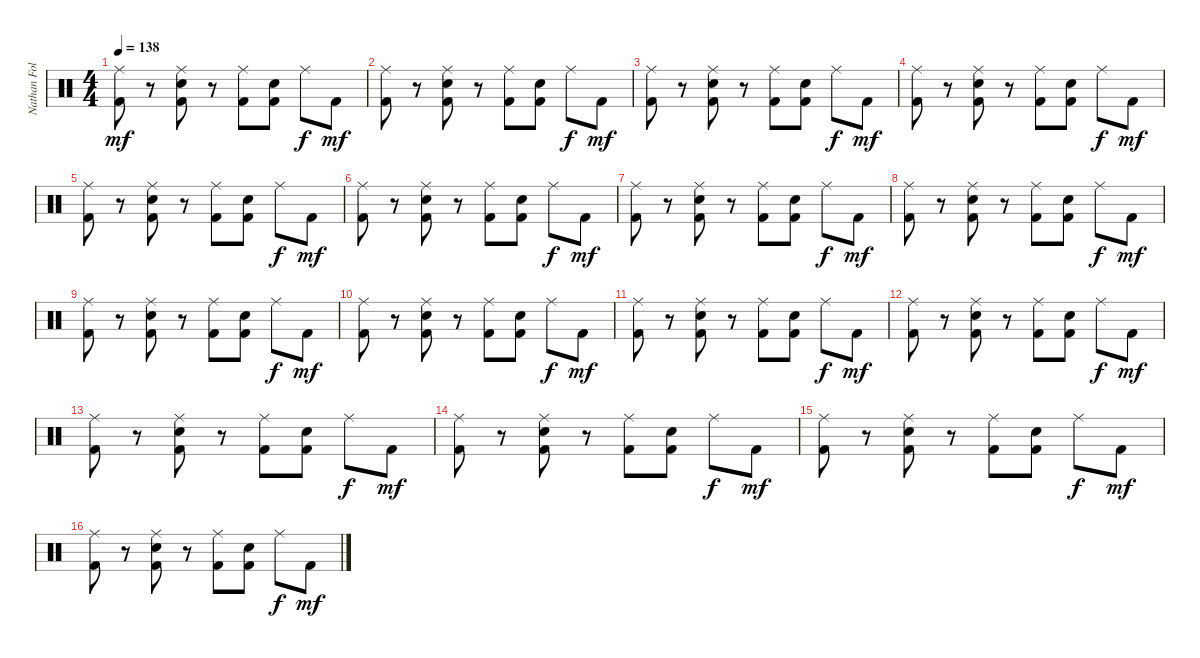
\track ("Nathan Followill" "Nathan Fol") {instrument percussion}
\staff {score}
\articulation defaults
\ts (4 4)
\tempo 138
\clef neutral
\ks c
("Ride (middle)" "Kick (hit) 2").8{dy mf} r.8 ("Ride (middle)" "Snare (hit) 2" "Kick (hit) 2").8 r.8 ("Ride (middle)" "Kick (hit) 2").8 ("Snare (hit) 2" "Kick (hit) 2").8 "Ride (middle)".8{dy f} "Kick (hit) 2".8{dy mf} |
("Ride (middle)" "Kick (hit) 2").8 r.8 ("Ride (middle)" "Snare (hit) 2" "Kick (hit) 2").8 r.8 ("Ride (middle)" "Kick (hit) 2").8 ("Snare (hit) 2" "Kick (hit) 2").8 "Ride (middle)".8{dy f} "Kick (hit) 2".8{dy mf} |
("Ride (middle)" "Kick (hit) 2").8 r.8 ("Ride (middle)" "Snare (hit) 2" "Kick (hit) 2").8 r.8 ("Ride (middle)" "Kick (hit) 2").8 ("Snare (hit) 2" "Kick (hit) 2").8 "Ride (middle)".8{dy f} "Kick (hit) 2".8{dy mf} |
("Ride (middle)" "Kick (hit) 2").8 r.8 ("Ride (middle)" "Snare (hit) 2" "Kick (hit) 2").8 r.8 ("Ride (middle)" "Kick (hit) 2").8 ("Snare (hit) 2" "Kick (hit) 2").8 "Ride (middle)".8{dy f} "Kick (hit) 2".8{dy mf} |
("Ride (middle)" "Kick (hit) 2").8 r.8 ("Ride (middle)" "Snare (hit) 2" "Kick (hit) 2").8 r.8 ("Ride (middle)" "Kick (hit) 2").8 ("Snare (hit) 2" "Kick (hit) 2").8 "Ride (middle)".8{dy f} "Kick (hit) 2".8{dy mf} |
("Ride (middle)" "Kick (hit) 2").8 r.8 ("Ride (middle)" "Snare (hit) 2" "Kick (hit) 2").8 r.8 ("Ride (middle)" "Kick (hit) 2").8 ("Snare (hit) 2" "Kick (hit) 2").8 "Ride (middle)".8{dy f} "Kick (hit) 2".8{dy mf} |
("Ride (middle)" "Kick (hit) 2").8 r.8 ("Ride (middle)" "Snare (hit) 2" "Kick (hit) 2").8 r.8 ("Ride (middle)" "Kick (hit) 2").8 ("Snare (hit) 2" "Kick (hit) 2").8 "Ride (middle)".8{dy f} "Kick (hit) 2".8{dy mf} |
("Ride (middle)" "Kick (hit) 2").8 r.8 ("Ride (middle)" "Snare (hit) 2" "Kick (hit) 2").8 r.8 ("Ride (middle)" "Kick (hit) 2").8 ("Snare (hit) 2" "Kick (hit) 2").8 "Ride (middle)".8{dy f} "Kick (hit) 2".8{dy mf} |
("Ride (middle)" "Kick (hit) 2").8 r.8 ("Ride (middle)" "Snare (hit) 2" "Kick (hit) 2").8 r.8 ("Ride (middle)" "Kick (hit) 2").8 ("Snare (hit) 2" "Kick (hit) 2").8 "Ride (middle)".8{dy f} "Kick (hit) 2".8{dy mf} |
("Ride (middle)" "Kick (hit) 2").8 r.8 ("Ride (middle)" "Snare (hit) 2" "Kick (hit) 2").8 r.8 ("Ride (middle)" "Kick (hit) 2").8 ("Snare (hit) 2" "Kick (hit) 2").8 "Ride (middle)".8{dy f} "Kick (hit) 2".8{dy mf} |
("Ride (middle)" "Kick (hit) 2").8 r.8 ("Ride (middle)" "Snare (hit) 2" "Kick (hit) 2").8 r.8 ("Ride (middle)" "Kick (hit) 2").8 ("Snare (hit) 2" "Kick (hit) 2").8 "Ride (middle)".8{dy f} "Kick (hit) 2".8{dy mf} |
("Ride (middle)" "Kick (hit) 2").8 r.8 ("Ride (middle)" "Snare (hit) 2" "Kick (hit) 2").8 r.8 ("Ride (middle)" "Kick (hit) 2").8 ("Snare (hit) 2" "Kick (hit) 2").8 "Ride (middle)".8{dy f} "Kick (hit) 2".8{dy mf} |
("Ride (middle)" "Kick (hit) 2").8 r.8 ("Ride (middle)" "Snare (hit) 2" "Kick (hit) 2").8 r.8 ("Ride (middle)" "Kick (hit) 2").8 ("Snare (hit) 2" "Kick (hit) 2").8 "Ride (middle)".8{dy f} "Kick (hit) 2".8{dy mf} |
("Ride (middle)" "Kick (hit) 2").8 r.8 ("Ride (middle)" "Snare (hit) 2" "Kick (hit) 2").8 r.8 ("Ride (middle)" "Kick (hit) 2").8 ("Snare (hit) 2" "Kick (hit) 2").8 "Ride (middle)".8{dy f} "Kick (hit) 2".8{dy mf} |
("Ride (middle)" "Kick (hit) 2").8 r.8 ("Ride (middle)" "Snare (hit) 2" "Kick (hit) 2").8 r.8 ("Ride (middle)" "Kick (hit) 2").8 ("Snare (hit) 2" "Kick (hit) 2").8 "Ride (middle)".8{dy f} "Kick (hit) 2".8{dy mf} |
("Ride (middle)" "Kick (hit) 2").8 r.8 ("Ride (middle)" "Snare (hit) 2" "Kick (hit) 2").8 r.8 ("Ride (middle)" "Kick (hit) 2").8 ("Snare (hit) 2" "Kick (hit) 2").8 "Ride (middle)".8{dy f} "Kick (hit) 2".8{dy mf}
